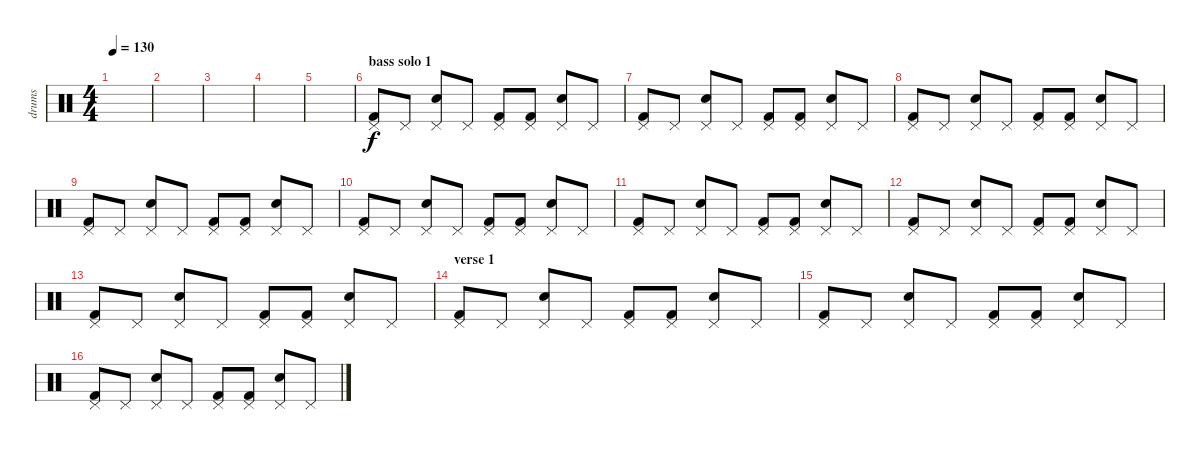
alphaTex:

\track ("drums" "drums") {instrument percussion}
\staff {score}
\articulation defaults
\ts (4 4)
\tempo 130
\clef neutral
\ks c
|
|
|
|
|
\section ("" "bass solo 1")
("Kick (hit) 2" "Pedal Hi-Hat (hit)").8 "Pedal Hi-Hat (hit)".8 ("Snare (hit) 2" "Pedal Hi-Hat (hit)").8 "Pedal Hi-Hat (hit)".8 ("Kick (hit) 2" "Pedal Hi-Hat (hit)").8 ("Kick (hit) 2" "Pedal Hi-Hat (hit)").8 ("Snare (hit) 2" "Pedal Hi-Hat (hit)").8 "Pedal Hi-Hat (hit)".8 |
("Kick (hit) 2" "Pedal Hi-Hat (hit)").8 "Pedal Hi-Hat (hit)".8 ("Snare (hit) 2" "Pedal Hi-Hat (hit)").8 "Pedal Hi-Hat (hit)".8 ("Kick (hit) 2" "Pedal Hi-Hat (hit)").8 ("Kick (hit) 2" "Pedal Hi-Hat (hit)").8 ("Snare (hit) 2" "Pedal Hi-Hat (hit)").8 "Pedal Hi-Hat (hit)".8 |
("Kick (hit) 2" "Pedal Hi-Hat (hit)").8 "Pedal Hi-Hat (hit)".8 ("Snare (hit) 2" "Pedal Hi-Hat (hit)").8 "Pedal Hi-Hat (hit)".8 ("Kick (hit) 2" "Pedal Hi-Hat (hit)").8 ("Kick (hit) 2" "Pedal Hi-Hat (hit)").8 ("Snare (hit) 2" "Pedal Hi-Hat (hit)").8 "Pedal Hi-Hat (hit)".8 |
("Kick (hit) 2" "Pedal Hi-Hat (hit)").8 "Pedal Hi-Hat (hit)".8 ("Snare (hit) 2" "Pedal Hi-Hat (hit)").8 "Pedal Hi-Hat (hit)".8 ("Kick (hit) 2" "Pedal Hi-Hat (hit)").8 ("Kick (hit) 2" "Pedal Hi-Hat (hit)").8 ("Snare (hit) 2" "Pedal Hi-Hat (hit)").8 "Pedal Hi-Hat (hit)".8 |
("Kick (hit) 2" "Pedal Hi-Hat (hit)").8 "Pedal Hi-Hat (hit)".8 ("Snare (hit) 2" "Pedal Hi-Hat (hit)").8 "Pedal Hi-Hat (hit)".8 ("Kick (hit) 2" "Pedal Hi-Hat (hit)").8 ("Kick (hit) 2" "Pedal Hi-Hat (hit)").8 ("Snare (hit) 2" "Pedal Hi-Hat (hit)").8 "Pedal Hi-Hat (hit)".8 |
("Kick (hit) 2" "Pedal Hi-Hat (hit)").8 "Pedal Hi-Hat (hit)".8 ("Snare (hit) 2" "Pedal Hi-Hat (hit)").8 "Pedal Hi-Hat (hit)".8 ("Kick (hit) 2" "Pedal Hi-Hat (hit)").8 ("Kick (hit) 2" "Pedal Hi-Hat (hit)").8 ("Snare (hit) 2" "Pedal Hi-Hat (hit)").8 "Pedal Hi-Hat (hit)".8 |
("Kick (hit) 2" "Pedal Hi-Hat (hit)").8 "Pedal Hi-Hat (hit)".8 ("Snare (hit) 2" "Pedal Hi-Hat (hit)").8 "Pedal Hi-Hat (hit)".8 ("Kick (hit) 2" "Pedal Hi-Hat (hit)").8 ("Kick (hit) 2" "Pedal Hi-Hat (hit)").8 ("Snare (hit) 2" "Pedal Hi-Hat (hit)").8 "Pedal Hi-Hat (hit)".8 |
("Kick (hit) 2" "Pedal Hi-Hat (hit)").8 "Pedal Hi-Hat (hit)".8 ("Snare (hit) 2" "Pedal Hi-Hat (hit)").8 "Pedal Hi-Hat (hit)".8 ("Kick (hit) 2" "Pedal Hi-Hat (hit)").8 ("Kick (hit) 2" "Pedal Hi-Hat (hit)").8 ("Snare (hit) 2" "Pedal Hi-Hat (hit)").8 "Pedal Hi-Hat (hit)".8 |
\section ("" "verse 1")
("Kick (hit) 2" "Pedal Hi-Hat (hit)").8 "Pedal Hi-Hat (hit)".8 ("Snare (hit) 2" "Pedal Hi-Hat (hit)").8 "Pedal Hi-Hat (hit)".8 ("Kick (hit) 2" "Pedal Hi-Hat (hit)").8 ("Kick (hit) 2" "Pedal Hi-Hat (hit)").8 ("Snare (hit) 2" "Pedal Hi-Hat (hit)").8 "Pedal Hi-Hat (hit)".8 |
("Kick (hit) 2" "Pedal Hi-Hat (hit)").8 "Pedal Hi-Hat (hit)".8 ("Snare (hit) 2" "Pedal Hi-Hat (hit)").8 "Pedal Hi-Hat (hit)".8 ("Kick (hit) 2" "Pedal Hi-Hat (hit)").8 ("Kick (hit) 2" "Pedal Hi-Hat (hit)").8 ("Snare (hit) 2" "Pedal Hi-Hat (hit)").8 "Pedal Hi-Hat (hit)".8 |
("Kick (hit) 2" "Pedal Hi-Hat (hit)").8 "Pedal Hi-Hat (hit)".8 ("Snare (hit) 2" "Pedal Hi-Hat (hit)").8 "Pedal Hi-Hat (hit)".8 ("Kick (hit) 2" "Pedal Hi-Hat (hit)").8 ("Kick (hit) 2" "Pedal Hi-Hat (hit)").8 ("Snare (hit) 2" "Pedal Hi-Hat (hit)").8 "Pedal Hi-Hat (hit)".8
